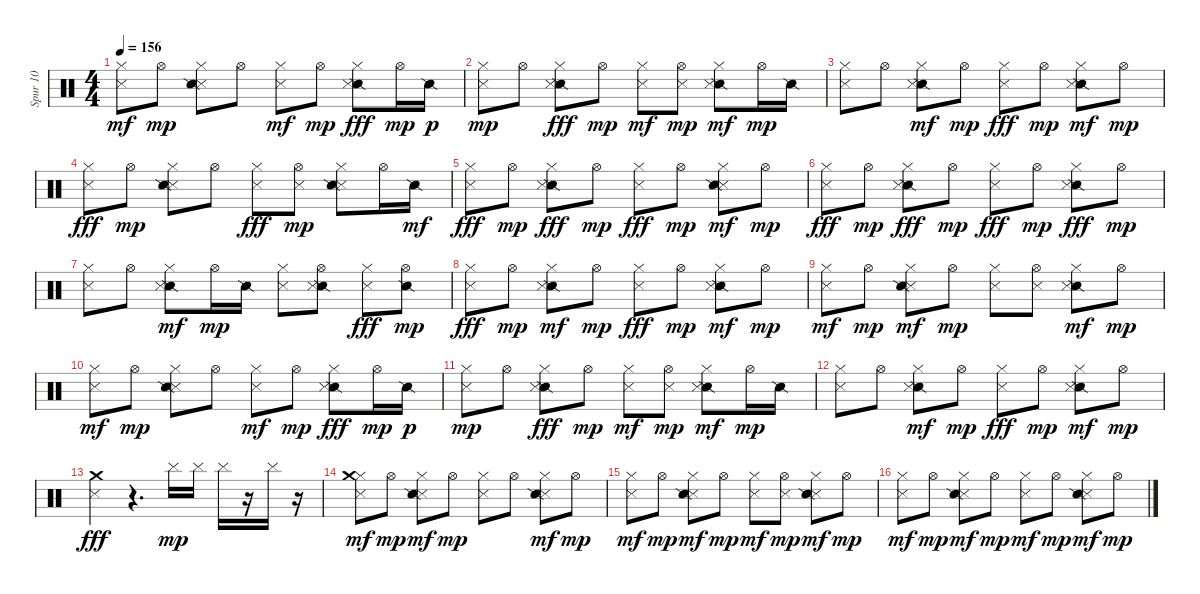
\track ("Spur 10" "Spur 10") {instrument percussion}
\staff {score}
\articulation defaults
\ts (4 4)
\tempo 156
\clef neutral
\ks c
("Metronome (hit)" "Hi-Hat (closed)").8{dy mf} "Hi-Hat (open)".8{dy mp} ("Metronome (hit)" "Snare (side stick) 2" "Hi-Hat (closed)").8 "Hi-Hat (open)".8 ("Metronome (hit)" "Hi-Hat (closed)").8{dy mf} "Hi-Hat (open)".8{dy mp} ("Snare (side stick) 2" "Metronome (hit)" "Hi-Hat (closed)").8{dy fff} "Hi-Hat (open)".16{dy mp} "Snare (side stick) 2".16{dy p} |
("Metronome (hit)" "Hi-Hat (closed)").8{dy mp} "Hi-Hat (open)".8 ("Snare (side stick) 2" "Metronome (hit)" "Hi-Hat (closed)").8{dy fff} "Hi-Hat (open)".8{dy mp} ("Metronome (hit)" "Hi-Hat (closed)").8{dy mf} ("Metronome (hit)" "Hi-Hat (open)").8{dy mp} ("Snare (side stick) 2" "Metronome (hit)" "Hi-Hat (closed)").8{dy mf} "Hi-Hat (open)".16{dy mp} "Snare (side stick) 2".16 |
("Metronome (hit)" "Hi-Hat (closed)").8 "Hi-Hat (open)".8 ("Snare (side stick) 2" "Metronome (hit)" "Hi-Hat (closed)").8{dy mf} "Hi-Hat (open)".8{dy mp} ("Metronome (hit)" "Hi-Hat (closed)").8{dy fff} "Hi-Hat (open)".8{dy mp} ("Snare (side stick) 2" "Metronome (hit)" "Hi-Hat (closed)").8{dy mf} "Hi-Hat (open)".8{dy mp} |
("Metronome (hit)" "Hi-Hat (closed)").8{dy fff} "Hi-Hat (open)".8{dy mp} ("Metronome (hit)" "Snare (side stick) 2" "Hi-Hat (closed)").8 "Hi-Hat (open)".8 ("Metronome (hit)" "Hi-Hat (closed)").8{dy fff} ("Metronome (hit)" "Hi-Hat (open)").8{dy mp} ("Metronome (hit)" "Snare (side stick) 2" "Hi-Hat (closed)").8 "Hi-Hat (open)".16 "Snare (side stick) 2".16{dy mf} |
("Metronome (hit)" "Hi-Hat (closed)").8{dy fff} "Hi-Hat (open)".8{dy mp} ("Snare (side stick) 2" "Metronome (hit)" "Hi-Hat (closed)").8{dy fff} "Hi-Hat (open)".8{dy mp} ("Metronome (hit)" "Hi-Hat (closed)").8{dy fff} "Hi-Hat (open)".8{dy mp} ("Metronome (hit)" "Snare (side stick) 2" "Hi-Hat (closed)").8{dy mf} "Hi-Hat (open)".8{dy mp} |
("Metronome (hit)" "Hi-Hat (closed)").8{dy fff} "Hi-Hat (open)".8{dy mp} ("Hi-Hat (closed)" "Snare (side stick) 2" "Metronome (hit)").8{dy fff} "Hi-Hat (open)".8{dy mp} ("Hi-Hat (closed)" "Metronome (hit)").8{dy fff} "Hi-Hat (open)".8{dy mp} ("Snare (side stick) 2" "Hi-Hat (closed)" "Metronome (hit)").8{dy fff} "Hi-Hat (open)".8{dy mp} |
("Metronome (hit)" "Hi-Hat (closed)").8 "Hi-Hat (open)".8 ("Snare (side stick) 2" "Metronome (hit)" "Hi-Hat (closed)").8{dy mf} "Hi-Hat (open)".16{dy mp} "Snare (side stick) 2".16 ("Metronome (hit)" "Hi-Hat (closed)").8 ("Snare (side stick) 2" "Metronome (hit)" "Hi-Hat (open)").8 ("Metronome (hit)" "Hi-Hat (closed)").8{dy fff} ("Snare (side stick) 2" "Hi-Hat (open)").8{dy mp} |
("Metronome (hit)" "Hi-Hat (closed)").8{dy fff} "Hi-Hat (open)".8{dy mp} ("Snare (side stick) 2" "Metronome (hit)" "Hi-Hat (closed)").8{dy mf} "Hi-Hat (open)".8{dy mp} ("Metronome (hit)" "Hi-Hat (closed)").8{dy fff} "Hi-Hat (open)".8{dy mp} ("Snare (side stick) 2" "Metronome (hit)" "Hi-Hat (closed)").8{dy mf} "Hi-Hat (open)".8{dy mp} |
("Metronome (hit)" "Hi-Hat (closed)").8{dy mf} "Hi-Hat (open)".8{dy mp} ("Metronome (hit)" "Snare (side stick) 2" "Hi-Hat (closed)").8{dy mf} "Hi-Hat (open)".8{dy mp} ("Metronome (hit)" "Hi-Hat (closed)").8 ("Metronome (hit)" "Hi-Hat (open)").8 ("Snare (side stick) 2" "Metronome (hit)" "Hi-Hat (closed)").8{dy mf} "Hi-Hat (open)".8{dy mp} |
("Metronome (hit)" "Hi-Hat (closed)").8{dy mf} "Hi-Hat (open)".8{dy mp} ("Metronome (hit)" "Snare (side stick) 2" "Hi-Hat (closed)").8 "Hi-Hat (open)".8 ("Metronome (hit)" "Hi-Hat (closed)").8{dy mf} "Hi-Hat (open)".8{dy mp} ("Snare (side stick) 2" "Metronome (hit)" "Hi-Hat (closed)").8{dy fff} "Hi-Hat (open)".16{dy mp} "Snare (side stick) 2".16{dy p} |
("Metronome (hit)" "Hi-Hat (closed)").8{dy mp} "Hi-Hat (open)".8 ("Snare (side stick) 2" "Metronome (hit)" "Hi-Hat (closed)").8{dy fff} "Hi-Hat (open)".8{dy mp} ("Metronome (hit)" "Hi-Hat (closed)").8{dy mf} ("Metronome (hit)" "Hi-Hat (open)").8{dy mp} ("Snare (side stick) 2" "Metronome (hit)" "Hi-Hat (closed)").8{dy mf} "Hi-Hat (open)".16{dy mp} "Snare (side stick) 2".16 |
("Metronome (hit)" "Hi-Hat (closed)").8 "Hi-Hat (open)".8 ("Snare (side stick) 2" "Metronome (hit)" "Hi-Hat (closed)").8{dy mf} "Hi-Hat (open)".8{dy mp} ("Metronome (hit)" "Hi-Hat (closed)").8{dy fff} "Hi-Hat (open)".8{dy mp} ("Snare (side stick) 2" "Metronome (hit)" "Hi-Hat (closed)").8{dy mf} "Hi-Hat (open)".8{dy mp} |
("Crash medium (hit)" "Metronome (hit)").4{dy fff} r.4{d} "Cymbal (hit)".16{dy mp} "Cymbal (hit)".16 "Cymbal (hit)".16 r.16 "Cymbal (hit)".16 r.16 |
("Metronome (hit)" "Hi-Hat (closed)" "Crash medium (hit)").8{dy mf} "Hi-Hat (open)".8{dy mp} ("Metronome (hit)" "Snare (side stick) 2" "Hi-Hat (closed)").8{dy mf} "Hi-Hat (open)".8{dy mp} ("Metronome (hit)" "Hi-Hat (closed)").8 "Hi-Hat (open)".8 ("Metronome (hit)" "Snare (side stick) 2" "Hi-Hat (closed)").8{dy mf} "Hi-Hat (open)".8{dy mp} |
("Metronome (hit)" "Hi-Hat (closed)").8{dy mf} "Hi-Hat (open)".8{dy mp} ("Metronome (hit)" "Snare (side stick) 2" "Hi-Hat (closed)").8{dy mf} "Hi-Hat (open)".8{dy mp} ("Metronome (hit)" "Hi-Hat (closed)").8{dy mf} ("Metronome (hit)" "Hi-Hat (open)").8{dy mp} ("Metronome (hit)" "Snare (side stick) 2" "Hi-Hat (closed)").8{dy mf} "Hi-Hat (open)".8{dy mp} |
("Metronome (hit)" "Hi-Hat (closed)").8{dy mf} "Hi-Hat (open)".8{dy mp} ("Metronome (hit)" "Snare (side stick) 2" "Hi-Hat (closed)").8{dy mf} "Hi-Hat (open)".8{dy mp} ("Metronome (hit)" "Hi-Hat (closed)").8{dy mf} "Hi-Hat (open)".8{dy mp} ("Metronome (hit)" "Snare (side stick) 2" "Hi-Hat (closed)").8{dy mf} "Hi-Hat (open)".8{dy mp}
